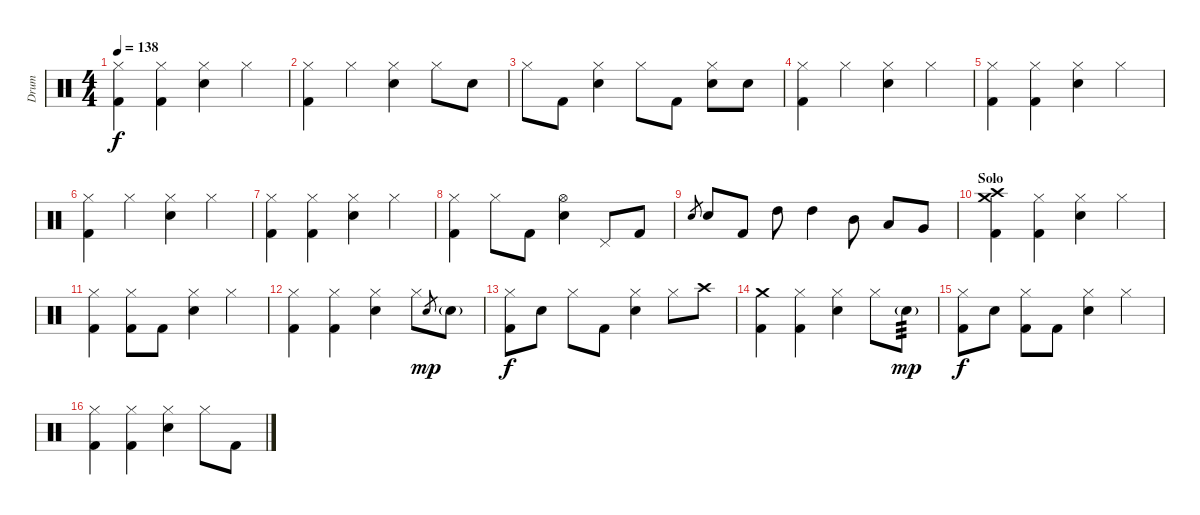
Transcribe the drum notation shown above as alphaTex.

\track ("Drum" "Drum") {instrument percussion}
\staff {score}
\articulation defaults
\ts (4 4)
\tempo 138
\clef neutral
\ks c
("Hi-Hat (closed)" "Kick (hit) 2").4{dy f} ("Hi-Hat (closed)" "Kick (hit) 2").4 ("Hi-Hat (closed)" "Electric Snare (hit)").4 "Hi-Hat (closed)".4 |
("Hi-Hat (closed)" "Kick (hit) 2").4 "Hi-Hat (closed)".4 ("Hi-Hat (closed)" "Electric Snare (hit)").4 "Hi-Hat (closed)".8 "Electric Snare (hit)".8 |
"Hi-Hat (closed)".8 "Kick (hit) 2".8 ("Hi-Hat (closed)" "Electric Snare (hit)").4 "Hi-Hat (closed)".8 "Kick (hit) 2".8 ("Hi-Hat (closed)" "Electric Snare (hit)").8 "Electric Snare (hit)".8 |
("Hi-Hat (closed)" "Kick (hit) 2").4 "Hi-Hat (closed)".4 ("Hi-Hat (closed)" "Electric Snare (hit)").4 "Hi-Hat (closed)".4 |
("Hi-Hat (closed)" "Kick (hit) 2").4 ("Hi-Hat (closed)" "Kick (hit) 2").4 ("Hi-Hat (closed)" "Electric Snare (hit)").4 "Hi-Hat (closed)".4 |
("Hi-Hat (closed)" "Kick (hit) 2").4 "Hi-Hat (closed)".4 ("Hi-Hat (closed)" "Electric Snare (hit)").4 "Hi-Hat (closed)".4 |
("Hi-Hat (closed)" "Kick (hit) 2").4 ("Hi-Hat (closed)" "Kick (hit) 2").4 ("Hi-Hat (closed)" "Electric Snare (hit)").4 "Hi-Hat (closed)".4 |
("Hi-Hat (closed)" "Kick (hit) 2").4 "Hi-Hat (closed)".8 "Kick (hit) 2".8 ("Hi-Hat (open)" "Electric Snare (hit)").4 "Pedal Hi-Hat (hit)".8 "Kick (hit) 2".8 |
"Electric Snare (hit)".8{gr} "Electric Snare (hit)".8 "Kick (hit) 2".8 "High Tom (hit)".8 "High Tom (hit)".4 "Mid Tom (hit)".8 "Low Tom (hit)".8 "Very Low Tom (hit)".8 |
\section ("" "Solo")
("Kick (hit) 2" "Crash high (hit)" "Crash medium (hit)").4 ("Hi-Hat (closed)" "Kick (hit) 2").4 ("Hi-Hat (closed)" "Electric Snare (hit)").4 "Hi-Hat (closed)".4 |
("Hi-Hat (closed)" "Kick (hit) 2").4 ("Hi-Hat (closed)" "Kick (hit) 2").8 "Kick (hit) 2".8 ("Hi-Hat (closed)" "Electric Snare (hit)").4 "Hi-Hat (closed)".4 |
("Hi-Hat (closed)" "Kick (hit) 2").4 ("Hi-Hat (closed)" "Kick (hit) 2").4 ("Hi-Hat (closed)" "Electric Snare (hit)").4 "Hi-Hat (closed)".8 "Electric Snare (hit)".8{gr dy mp} "Electric Snare (hit)"{g}.8 |
("Hi-Hat (closed)" "Kick (hit) 2").8{dy f} "Electric Snare (hit)".8 "Hi-Hat (closed)".8 "Kick (hit) 2".8 ("Hi-Hat (closed)" "Electric Snare (hit)").4 "Hi-Hat (closed)".8 "Crash high (hit)".8 |
("Kick (hit) 2" "Crash medium (hit)").4 ("Hi-Hat (closed)" "Kick (hit) 2").4 ("Hi-Hat (closed)" "Electric Snare (hit)").4 "Hi-Hat (closed)".8 "Electric Snare (hit)"{g}.8{tp 3 dy mp} |
("Hi-Hat (closed)" "Kick (hit) 2").8{dy f} "Electric Snare (hit)".8 ("Hi-Hat (closed)" "Kick (hit) 2").8 "Kick (hit) 2".8 ("Hi-Hat (closed)" "Electric Snare (hit)").4 "Hi-Hat (closed)".4 |
("Hi-Hat (closed)" "Kick (hit) 2").4 ("Hi-Hat (closed)" "Kick (hit) 2").4 ("Hi-Hat (closed)" "Electric Snare (hit)").4 "Hi-Hat (closed)".8 "Kick (hit) 2".8
